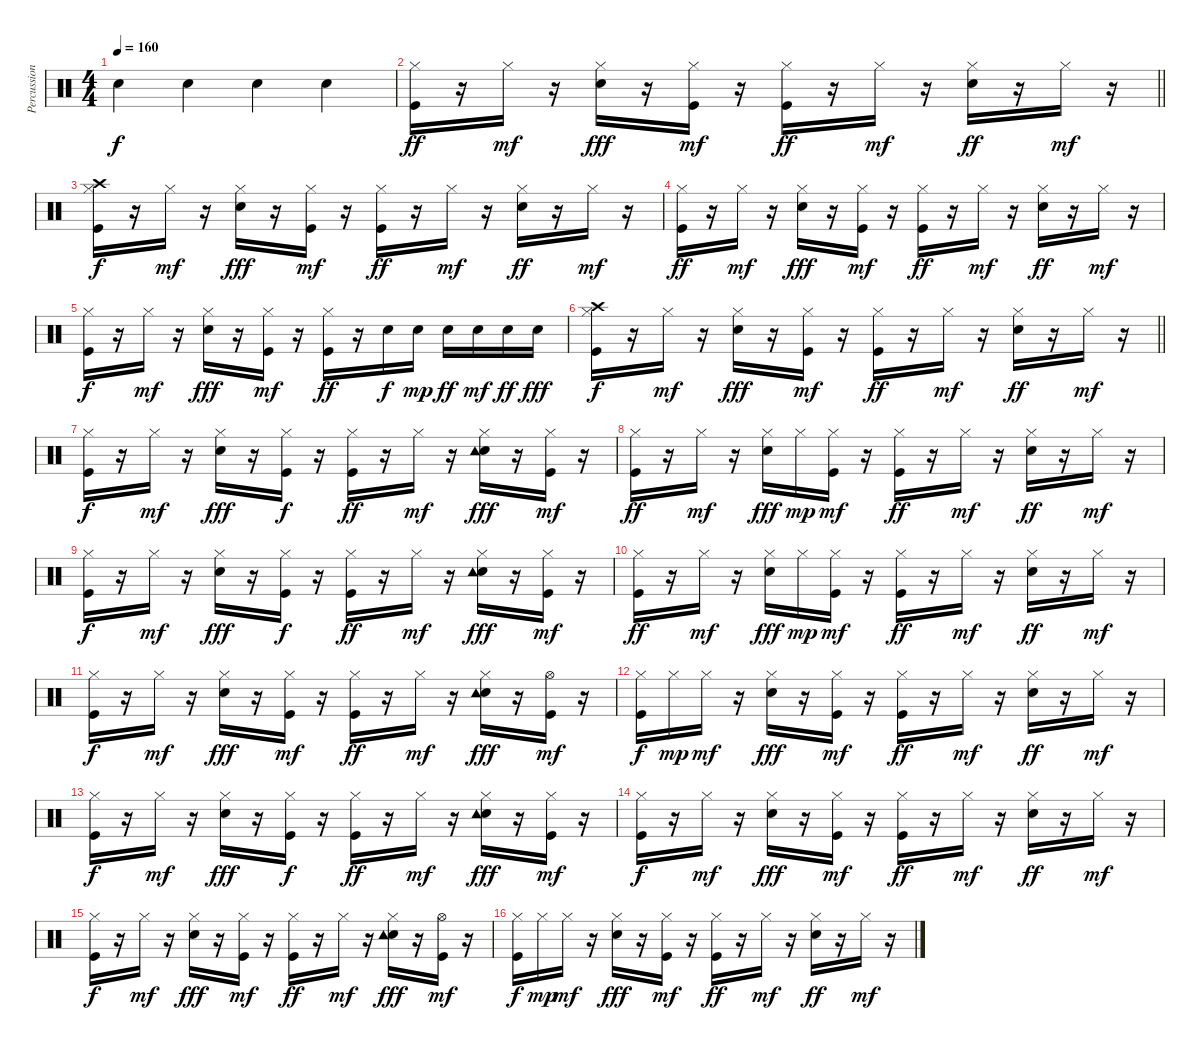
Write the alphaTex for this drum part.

\track ("Percussions" "Percussion") {instrument percussion}
\staff {score}
\articulation defaults
\ts (4 4)
\tempo 160
\clef neutral
\ks c "Electric Snare (hit)".4{dy f} "Electric Snare (hit)".4 "Electric Snare (hit)".4 "Electric Snare (hit)".4
|
\barLineRight lightlight
("Kick (hit)" "Hi-Hat (closed)").16{dy ff} r.16 "Hi-Hat (closed)".16{dy mf} r.16 ("Snare (hit) 2" "Hi-Hat (closed)").16{dy fff} r.16 ("Kick (hit)" "Hi-Hat (closed)").16{dy mf} r.16 ("Kick (hit)" "Hi-Hat (closed)").16{dy ff} r.16 "Hi-Hat (closed)".16{dy mf} r.16 ("Snare (hit) 2" "Hi-Hat (closed)").16{dy ff} r.16 "Hi-Hat (closed)".16{dy mf} r.16 |
("Kick (hit)" "Hi-Hat (closed)" "Crash high (hit)").16{dy f} r.16 "Hi-Hat (closed)".16{dy mf} r.16 ("Snare (hit) 2" "Hi-Hat (closed)").16{dy fff} r.16 ("Kick (hit)" "Hi-Hat (closed)").16{dy mf} r.16 ("Kick (hit)" "Hi-Hat (closed)").16{dy ff} r.16 "Hi-Hat (closed)".16{dy mf} r.16 ("Snare (hit) 2" "Hi-Hat (closed)").16{dy ff} r.16 "Hi-Hat (closed)".16{dy mf} r.16 |
("Kick (hit)" "Hi-Hat (closed)").16{dy ff} r.16 "Hi-Hat (closed)".16{dy mf} r.16 ("Snare (hit) 2" "Hi-Hat (closed)").16{dy fff} r.16 ("Kick (hit)" "Hi-Hat (closed)").16{dy mf} r.16 ("Kick (hit)" "Hi-Hat (closed)").16{dy ff} r.16 "Hi-Hat (closed)".16{dy mf} r.16 ("Snare (hit) 2" "Hi-Hat (closed)").16{dy ff} r.16 "Hi-Hat (closed)".16{dy mf} r.16 |
("Kick (hit)" "Hi-Hat (closed)").16{dy f} r.16 "Hi-Hat (closed)".16{dy mf} r.16 ("Snare (hit) 2" "Hi-Hat (closed)").16{dy fff} r.16 ("Kick (hit)" "Hi-Hat (closed)").16{dy mf} r.16 ("Kick (hit)" "Hi-Hat (closed)").16{dy ff} r.16 "Snare (hit) 2".16{dy f} "Snare (hit) 2".16{dy mp} "Snare (hit) 2".16{dy ff} "Snare (hit) 2".16{dy mf} "Snare (hit) 2".16{dy ff} "Snare (hit) 2".16{dy fff} |
\barLineRight lightlight
("Kick (hit)" "Hi-Hat (closed)" "Crash high (hit)").16{dy f} r.16 "Hi-Hat (closed)".16{dy mf} r.16 ("Snare (hit) 2" "Hi-Hat (closed)").16{dy fff} r.16 ("Kick (hit)" "Hi-Hat (closed)").16{dy mf} r.16 ("Kick (hit)" "Hi-Hat (closed)").16{dy ff} r.16 "Hi-Hat (closed)".16{dy mf} r.16 ("Snare (hit) 2" "Hi-Hat (closed)").16{dy ff} r.16 "Hi-Hat (closed)".16{dy mf} r.16 |
("Kick (hit)" "Hi-Hat (closed)").16{dy f} r.16 "Hi-Hat (closed)".16{dy mf} r.16 ("Snare (hit) 2" "Hi-Hat (closed)").16{dy fff} r.16 ("Kick (hit)" "Hi-Hat (closed)").16{dy f} r.16 ("Kick (hit)" "Hi-Hat (closed)").16{dy ff} r.16 "Hi-Hat (closed)".16{dy mf} r.16 ("Snare (hit) 2" "Hi-Hat (closed)" "Tambourine (hit)").16{dy fff} r.16 ("Kick (hit)" "Hi-Hat (closed)").16{dy mf} r.16 |
("Kick (hit)" "Hi-Hat (closed)").16{dy ff} r.16 "Hi-Hat (closed)".16{dy mf} r.16 ("Snare (hit) 2" "Hi-Hat (closed)").16{dy fff} "Hi-Hat (closed)".16{dy mp} ("Kick (hit)" "Hi-Hat (closed)").16{dy mf} r.16 ("Kick (hit)" "Hi-Hat (closed)").16{dy ff} r.16 "Hi-Hat (closed)".16{dy mf} r.16 ("Snare (hit) 2" "Hi-Hat (closed)").16{dy ff} r.16 "Hi-Hat (closed)".16{dy mf} r.16 |
("Kick (hit)" "Hi-Hat (closed)").16{dy f} r.16 "Hi-Hat (closed)".16{dy mf} r.16 ("Snare (hit) 2" "Hi-Hat (closed)").16{dy fff} r.16 ("Kick (hit)" "Hi-Hat (closed)").16{dy f} r.16 ("Kick (hit)" "Hi-Hat (closed)").16{dy ff} r.16 "Hi-Hat (closed)".16{dy mf} r.16 ("Snare (hit) 2" "Hi-Hat (closed)" "Tambourine (hit)").16{dy fff} r.16 ("Kick (hit)" "Hi-Hat (closed)").16{dy mf} r.16 |
("Kick (hit)" "Hi-Hat (closed)").16{dy ff} r.16 "Hi-Hat (closed)".16{dy mf} r.16 ("Snare (hit) 2" "Hi-Hat (closed)").16{dy fff} "Hi-Hat (closed)".16{dy mp} ("Kick (hit)" "Hi-Hat (closed)").16{dy mf} r.16 ("Kick (hit)" "Hi-Hat (closed)").16{dy ff} r.16 "Hi-Hat (closed)".16{dy mf} r.16 ("Snare (hit) 2" "Hi-Hat (closed)").16{dy ff} r.16 "Hi-Hat (closed)".16{dy mf} r.16 |
("Kick (hit)" "Hi-Hat (closed)").16{dy f} r.16 "Hi-Hat (closed)".16{dy mf} r.16 ("Snare (hit) 2" "Hi-Hat (closed)").16{dy fff} r.16 ("Kick (hit)" "Hi-Hat (closed)").16{dy mf} r.16 ("Kick (hit)" "Hi-Hat (closed)").16{dy ff} r.16 "Hi-Hat (closed)".16{dy mf} r.16 ("Snare (hit) 2" "Hi-Hat (closed)" "Tambourine (hit)").16{dy fff} r.16 ("Kick (hit)" "Hi-Hat (open)").16{dy mf} r.16 |
("Kick (hit)" "Hi-Hat (closed)").16{dy f} "Hi-Hat (closed)".16{dy mp} "Hi-Hat (closed)".16{dy mf} r.16 ("Snare (hit) 2" "Hi-Hat (closed)").16{dy fff} r.16 ("Kick (hit)" "Hi-Hat (closed)").16{dy mf} r.16 ("Kick (hit)" "Hi-Hat (closed)").16{dy ff} r.16 "Hi-Hat (closed)".16{dy mf} r.16 ("Snare (hit) 2" "Hi-Hat (closed)").16{dy ff} r.16 "Hi-Hat (closed)".16{dy mf} r.16 |
("Kick (hit)" "Hi-Hat (closed)").16{dy f} r.16 "Hi-Hat (closed)".16{dy mf} r.16 ("Snare (hit) 2" "Hi-Hat (closed)").16{dy fff} r.16 ("Kick (hit)" "Hi-Hat (closed)").16{dy f} r.16 ("Kick (hit)" "Hi-Hat (closed)").16{dy ff} r.16 "Hi-Hat (closed)".16{dy mf} r.16 ("Snare (hit) 2" "Hi-Hat (closed)" "Tambourine (hit)").16{dy fff} r.16 ("Kick (hit)" "Hi-Hat (closed)").16{dy mf} r.16 |
("Kick (hit)" "Hi-Hat (closed)").16{dy f} r.16 "Hi-Hat (closed)".16{dy mf} r.16 ("Snare (hit) 2" "Hi-Hat (closed)").16{dy fff} r.16 ("Kick (hit)" "Hi-Hat (closed)").16{dy mf} r.16 ("Kick (hit)" "Hi-Hat (closed)").16{dy ff} r.16 "Hi-Hat (closed)".16{dy mf} r.16 ("Snare (hit) 2" "Hi-Hat (closed)").16{dy ff} r.16 "Hi-Hat (closed)".16{dy mf} r.16 |
("Kick (hit)" "Hi-Hat (closed)").16{dy f} r.16 "Hi-Hat (closed)".16{dy mf} r.16 ("Snare (hit) 2" "Hi-Hat (closed)").16{dy fff} r.16 ("Kick (hit)" "Hi-Hat (closed)").16{dy mf} r.16 ("Kick (hit)" "Hi-Hat (closed)").16{dy ff} r.16 "Hi-Hat (closed)".16{dy mf} r.16 ("Snare (hit) 2" "Hi-Hat (closed)" "Tambourine (hit)").16{dy fff} r.16 ("Kick (hit)" "Hi-Hat (open)").16{dy mf} r.16 |
("Kick (hit)" "Hi-Hat (closed)").16{dy f} "Hi-Hat (closed)".16{dy mp} "Hi-Hat (closed)".16{dy mf} r.16 ("Snare (hit) 2" "Hi-Hat (closed)").16{dy fff} r.16 ("Kick (hit)" "Hi-Hat (closed)").16{dy mf} r.16 ("Kick (hit)" "Hi-Hat (closed)").16{dy ff} r.16 "Hi-Hat (closed)".16{dy mf} r.16 ("Snare (hit) 2" "Hi-Hat (closed)").16{dy ff} r.16 "Hi-Hat (closed)".16{dy mf} r.16
